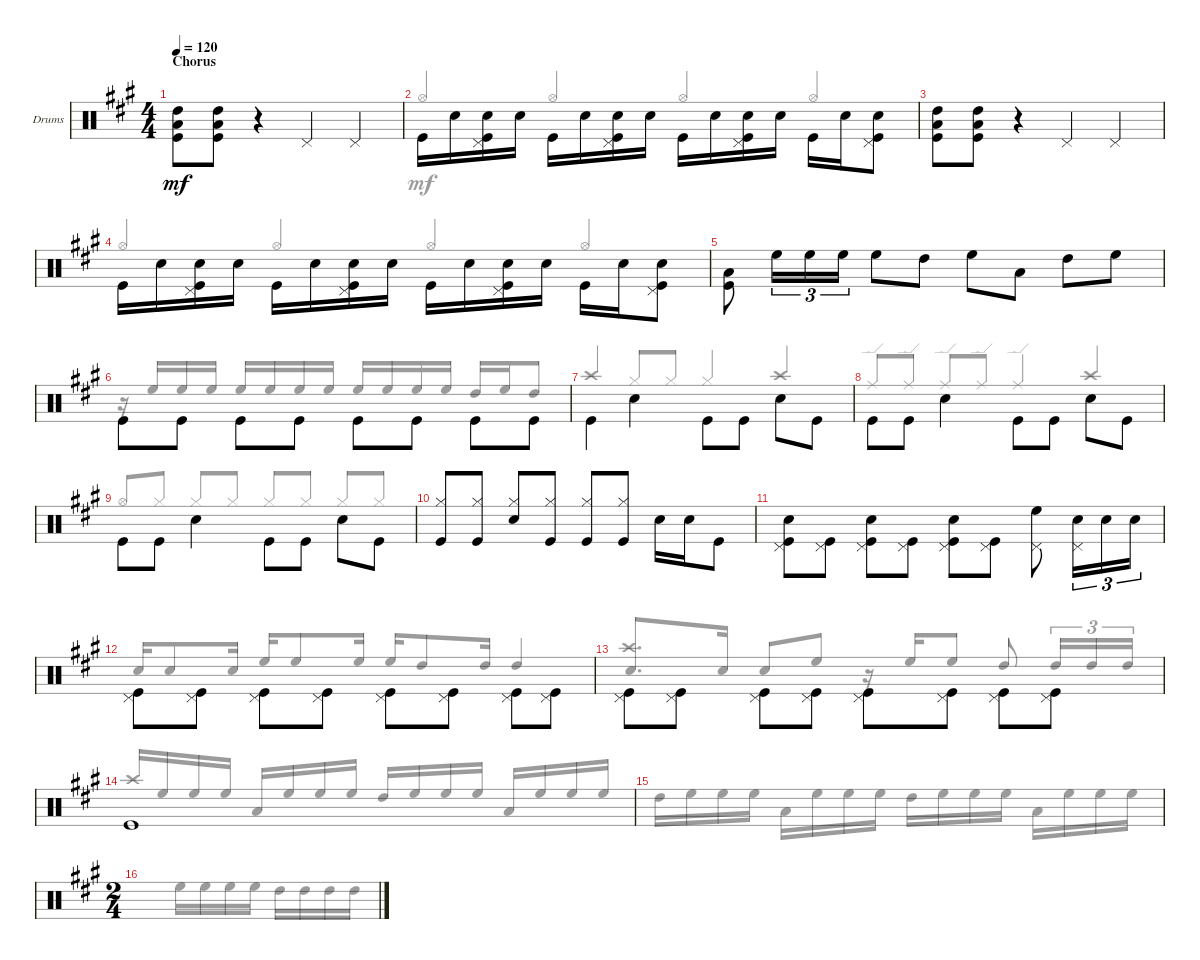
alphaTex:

\defaultSystemsLayout 4
\bracketExtendMode groupsimilarinstruments
\firstSystemTrackNameOrientation horizontal
\otherSystemsTrackNameOrientation horizontal
\track ("PETER CRISS" "Drums") {mute instrument percussion}
\staff {score}
\articulation defaults
\voice
\ts (4 4)
\section ("" "Chorus")
\tempo 120
\clef neutral
\ks a
("High Tom (hit)" "Kick (hit)" "Low Tom (hit)").8{dy mf} ("Kick (hit)" "Low Tom (hit)" "High Tom (hit)").8 r.4 "Pedal Hi-Hat (hit)".4 "Pedal Hi-Hat (hit)".4 |
"Kick (hit)".16{beam invert} "Snare (hit) 2".16 ("Snare (hit) 2" "Kick (hit)" "Pedal Hi-Hat (hit)").16 "Snare (hit) 2".16 "Kick (hit)".16{beam invert} "Snare (hit) 2".16 ("Snare (hit) 2" "Kick (hit)" "Pedal Hi-Hat (hit)").16 "Snare (hit) 2".16 "Kick (hit)".16{beam invert} "Snare (hit) 2".16 ("Snare (hit) 2" "Kick (hit)" "Pedal Hi-Hat (hit)").16 "Snare (hit) 2".16 "Kick (hit)".16{beam invert} "Snare (hit) 2".16 ("Snare (hit) 2" "Kick (hit)" "Pedal Hi-Hat (hit)").8 |
("High Tom (hit)" "Kick (hit)" "Low Tom (hit)").8 ("Kick (hit)" "Low Tom (hit)" "High Tom (hit)").8 r.4 "Pedal Hi-Hat (hit)".4 "Pedal Hi-Hat (hit)".4 |
"Kick (hit)".16{beam invert} "Snare (hit) 2".16 ("Snare (hit) 2" "Kick (hit)" "Pedal Hi-Hat (hit)").16 "Snare (hit) 2".16 "Kick (hit)".16{beam invert} "Snare (hit) 2".16 ("Snare (hit) 2" "Kick (hit)" "Pedal Hi-Hat (hit)").16 "Snare (hit) 2".16 "Kick (hit)".16{beam invert} "Snare (hit) 2".16 ("Snare (hit) 2" "Kick (hit)" "Pedal Hi-Hat (hit)").16 "Snare (hit) 2".16 "Kick (hit)".16{beam invert} "Snare (hit) 2".16 ("Snare (hit) 2" "Kick (hit)" "Pedal Hi-Hat (hit)").8 |
("Kick (hit)" "Low Tom (hit)").8{beam invert} "High Floor Tom (hit)".16{tu (3 2)} "High Floor Tom (hit)".16{tu (3 2)} "High Floor Tom (hit)".16{tu (3 2)} "High Floor Tom (hit)".8 "High Tom (hit)".8 "High Floor Tom (hit)".8 "Low Tom (hit)".8 "High Tom (hit)".8 "High Floor Tom (hit)".8 |
"Kick (hit)".8{beam invert} "Kick (hit)".8 "Kick (hit)".8{beam invert} "Kick (hit)".8 "Kick (hit)".8{beam invert} "Kick (hit)".8 "Kick (hit)".8{beam invert} "Kick (hit)".8 |
"Kick (hit)".4{beam invert} "Snare (hit) 2".4{beam invert} "Kick (hit)".8{beam invert} "Kick (hit)".8 "Snare (hit) 2".8{beam invert} "Kick (hit)".8 |
"Kick (hit)".8{beam invert} "Kick (hit)".8 "Snare (hit) 2".4{beam invert} "Kick (hit)".8{beam invert} "Kick (hit)".8 "Snare (hit) 2".8{beam invert} "Kick (hit)".8 |
"Kick (hit)".8{beam invert} "Kick (hit)".8 "Snare (hit) 2".4{beam invert} "Kick (hit)".8{beam invert} "Kick (hit)".8 "Snare (hit) 2".8{beam invert} "Kick (hit)".8 |
("Hi-Hat (closed)" "Kick (hit)").8{beam invert} ("Hi-Hat (closed)" "Kick (hit)").8 ("Hi-Hat (closed)" "Snare (hit) 2").8{beam invert} ("Hi-Hat (closed)" "Kick (hit)").8 ("Hi-Hat (closed)" "Kick (hit)").8{beam invert} ("Hi-Hat (closed)" "Kick (hit)").8 "Snare (hit) 2".16{beam invert} "Snare (hit) 2".16 "Kick (hit)".8 |
("Pedal Hi-Hat (hit)" "Kick (hit)" "Snare (hit) 2").8{beam invert} ("Pedal Hi-Hat (hit)" "Kick (hit)").8 ("Pedal Hi-Hat (hit)" "Kick (hit)" "Snare (hit) 2").8{beam invert} ("Pedal Hi-Hat (hit)" "Kick (hit)").8 ("Pedal Hi-Hat (hit)" "Kick (hit)" "Snare (hit) 2").8{beam invert} ("Pedal Hi-Hat (hit)" "Kick (hit)").8 ("High Floor Tom (hit)" "Pedal Hi-Hat (hit)").8{beam invert} ("Pedal Hi-Hat (hit)" "Snare (hit) 2").16{tu (3 2) beam invert} "Snare (hit) 2".16{tu (3 2)} "Snare (hit) 2".16{tu (3 2)} |
("Pedal Hi-Hat (hit)" "Kick (hit)").8{beam invert} ("Pedal Hi-Hat (hit)" "Kick (hit)").8 ("Pedal Hi-Hat (hit)" "Kick (hit)").8{beam invert} ("Pedal Hi-Hat (hit)" "Kick (hit)").8 ("Pedal Hi-Hat (hit)" "Kick (hit)").8{beam invert} ("Pedal Hi-Hat (hit)" "Kick (hit)").8 ("Pedal Hi-Hat (hit)" "Kick (hit)").8{beam invert} ("Pedal Hi-Hat (hit)" "Kick (hit)").8 |
("Pedal Hi-Hat (hit)" "Kick (hit)").8{beam invert} ("Pedal Hi-Hat (hit)" "Kick (hit)").8 ("Pedal Hi-Hat (hit)" "Kick (hit)").8{beam invert} ("Pedal Hi-Hat (hit)" "Kick (hit)").8 ("Pedal Hi-Hat (hit)" "Kick (hit)").8{beam invert} ("Pedal Hi-Hat (hit)" "Kick (hit)").8 ("Pedal Hi-Hat (hit)" "Kick (hit)").8{beam invert} ("Pedal Hi-Hat (hit)" "Kick (hit)").8 |
"Kick (hit)".1 |
|
\ts (2 4)
\voice
\clef neutral
\ottava regular
\simile none
\ks a
|
"Hi-Hat (open)".4{beam invert} "Hi-Hat (open)".4{beam invert} "Hi-Hat (open)".4{beam invert} "Hi-Hat (open)".4{beam invert} |
|
"Hi-Hat (open)".4{beam invert} "Hi-Hat (open)".4{beam invert} "Hi-Hat (open)".4{beam invert} "Hi-Hat (open)".4{beam invert} |
|
r.16{beam invert} "High Floor Tom (hit)".16{beam invert} "High Floor Tom (hit)".16 "High Floor Tom (hit)".16 "High Floor Tom (hit)".16{beam invert} "High Floor Tom (hit)".16 "High Floor Tom (hit)".16 "High Floor Tom (hit)".16 "High Floor Tom (hit)".16{beam invert} "High Floor Tom (hit)".16 "High Floor Tom (hit)".16 "High Floor Tom (hit)".16 "High Tom (hit)".16{beam invert} "High Floor Tom (hit)".16 "High Tom (hit)".8 |
"Crash high (hit)".4{beam invert} "Hi-Hat (closed)".8{beam invert} "Hi-Hat (closed)".8 "Hi-Hat (closed)".4{beam invert} "Crash high (hit)".4{beam invert} |
"Ride (edge)".8{beam invert} "Ride (edge)".8 "Ride (edge)".8{beam invert} "Ride (edge)".8 "Ride (edge)".4{beam invert} "Crash high (hit)".4{beam invert} |
"Hi-Hat (open)".8{beam invert} "Hi-Hat (closed)".8 "Hi-Hat (closed)".8{beam invert} "Hi-Hat (closed)".8 "Hi-Hat (closed)".8{beam invert} "Hi-Hat (closed)".8 "Hi-Hat (closed)".8{beam invert} "Hi-Hat (closed)".8 |
|
|
"Snare (hit) 2".16{beam invert} "Snare (hit) 2".8 "Snare (hit) 2".16 "High Floor Tom (hit)".16{beam invert} "High Floor Tom (hit)".8 "High Floor Tom (hit)".16 "High Floor Tom (hit)".16{beam invert} "High Tom (hit)".8 "High Tom (hit)".16 "High Tom (hit)".4{beam invert} |
("Snare (hit) 2" "Crash high (hit)").8{d beam invert} "Snare (hit) 2".16 "Snare (hit) 2".8{beam invert} "High Floor Tom (hit)".8 r.16 "High Floor Tom (hit)".16{beam invert} "High Floor Tom (hit)".8 "High Tom (hit)".8{beam invert} "High Tom (hit)".16{tu (3 2) beam invert} "High Tom (hit)".16{tu (3 2)} "High Tom (hit)".16{tu (3 2)} |
"Crash high (hit)".16{beam invert} "High Floor Tom (hit)".16 "High Floor Tom (hit)".16 "High Floor Tom (hit)".16 "Low Tom (hit)".16{beam invert} "High Floor Tom (hit)".16 "High Floor Tom (hit)".16 "High Floor Tom (hit)".16 "High Tom (hit)".16{beam invert} "High Floor Tom (hit)".16 "High Floor Tom (hit)".16 "High Floor Tom (hit)".16 "Low Tom (hit)".16{beam invert} "High Floor Tom (hit)".16 "High Floor Tom (hit)".16 "High Floor Tom (hit)".16 |
"High Tom (hit)".16 "High Floor Tom (hit)".16 "High Floor Tom (hit)".16 "High Floor Tom (hit)".16 "Low Tom (hit)".16 "High Floor Tom (hit)".16 "High Floor Tom (hit)".16 "High Floor Tom (hit)".16 "High Tom (hit)".16 "High Floor Tom (hit)".16 "High Floor Tom (hit)".16 "High Floor Tom (hit)".16 "Low Tom (hit)".16 "High Floor Tom (hit)".16 "High Floor Tom (hit)".16 "High Floor Tom (hit)".16 |
"High Floor Tom (hit)".16 "High Floor Tom (hit)".16 "High Floor Tom (hit)".16 "High Floor Tom (hit)".16 "High Tom (hit)".16 "High Tom (hit)".16 "High Tom (hit)".16 "High Tom (hit)".16
